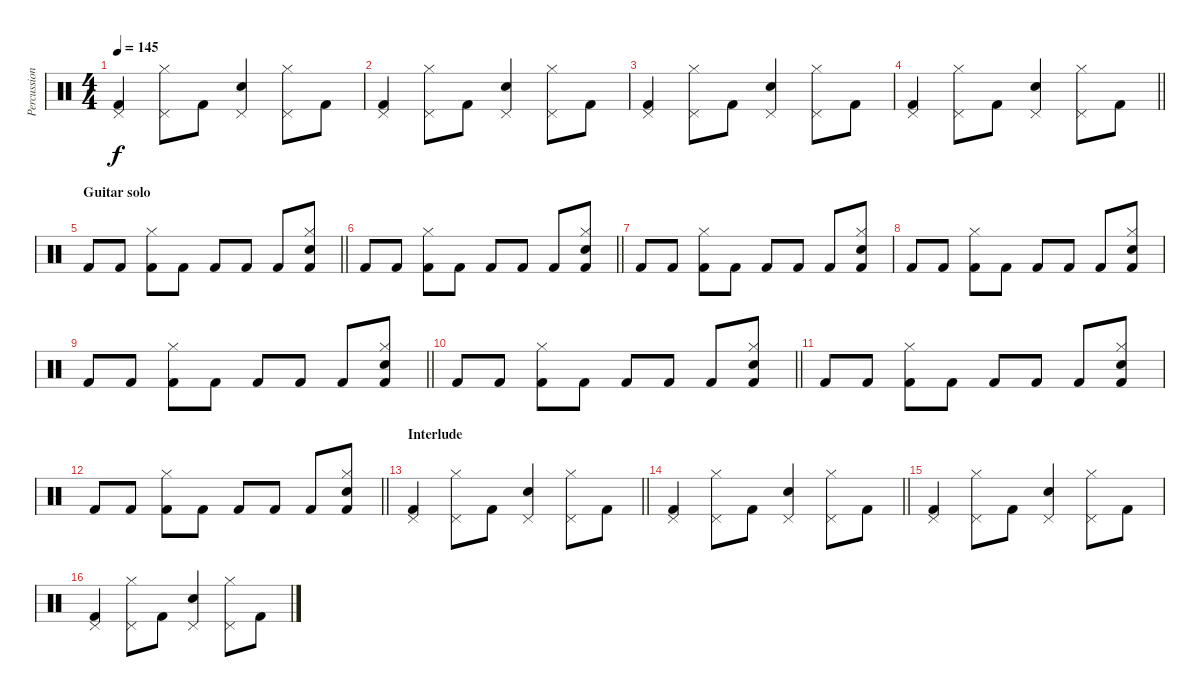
\track ("Percussion" "Percussion") {instrument percussion}
\staff {score}
\articulation defaults
\ts (4 4)
\tempo 145
\clef neutral
\ks c
("Kick (hit) 2" "Pedal Hi-Hat (hit)").4{dy f} ("Hi-Hat (closed)" "Pedal Hi-Hat (hit)").8 "Kick (hit) 2".8 ("Snare (hit) 2" "Pedal Hi-Hat (hit)").4 ("Hi-Hat (closed)" "Pedal Hi-Hat (hit)").8 "Kick (hit) 2".8 |
("Kick (hit) 2" "Pedal Hi-Hat (hit)").4 ("Hi-Hat (closed)" "Pedal Hi-Hat (hit)").8 "Kick (hit) 2".8 ("Snare (hit) 2" "Pedal Hi-Hat (hit)").4 ("Hi-Hat (closed)" "Pedal Hi-Hat (hit)").8 "Kick (hit) 2".8 |
("Kick (hit) 2" "Pedal Hi-Hat (hit)").4 ("Hi-Hat (closed)" "Pedal Hi-Hat (hit)").8 "Kick (hit) 2".8 ("Snare (hit) 2" "Pedal Hi-Hat (hit)").4 ("Hi-Hat (closed)" "Pedal Hi-Hat (hit)").8 "Kick (hit) 2".8 |
\barLineRight lightlight
("Kick (hit) 2" "Pedal Hi-Hat (hit)").4 ("Hi-Hat (closed)" "Pedal Hi-Hat (hit)").8 "Kick (hit) 2".8 ("Snare (hit) 2" "Pedal Hi-Hat (hit)").4 ("Hi-Hat (closed)" "Pedal Hi-Hat (hit)").8 "Kick (hit) 2".8 |
\section ("" "Guitar solo")
\barLineRight lightlight "Kick (hit) 2".8 "Kick (hit) 2".8
("Hi-Hat (closed)" "Kick (hit) 2").8 "Kick (hit) 2".8 "Kick (hit) 2".8 "Kick (hit) 2".8 "Kick (hit) 2".8 ("Hi-Hat (closed)" "Snare (hit) 2" "Kick (hit) 2").8 |
\section ("" "")
\barLineRight lightlight "Kick (hit) 2".8 "Kick (hit) 2".8
("Hi-Hat (closed)" "Kick (hit) 2").8 "Kick (hit) 2".8 "Kick (hit) 2".8 "Kick (hit) 2".8 "Kick (hit) 2".8 ("Hi-Hat (closed)" "Snare (hit) 2" "Kick (hit) 2").8 |
"Kick (hit) 2".8 "Kick (hit) 2".8 ("Hi-Hat (closed)" "Kick (hit) 2").8 "Kick (hit) 2".8 "Kick (hit) 2".8 "Kick (hit) 2".8 "Kick (hit) 2".8 ("Hi-Hat (closed)" "Snare (hit) 2" "Kick (hit) 2").8 |
"Kick (hit) 2".8 "Kick (hit) 2".8 ("Hi-Hat (closed)" "Kick (hit) 2").8 "Kick (hit) 2".8 "Kick (hit) 2".8 "Kick (hit) 2".8 "Kick (hit) 2".8 ("Hi-Hat (closed)" "Snare (hit) 2" "Kick (hit) 2").8 |
\barLineRight lightlight "Kick (hit) 2".8 "Kick (hit) 2".8
("Hi-Hat (closed)" "Kick (hit) 2").8 "Kick (hit) 2".8 "Kick (hit) 2".8 "Kick (hit) 2".8 "Kick (hit) 2".8 ("Hi-Hat (closed)" "Snare (hit) 2" "Kick (hit) 2").8 |
\barLineRight lightlight "Kick (hit) 2".8 "Kick (hit) 2".8
("Hi-Hat (closed)" "Kick (hit) 2").8 "Kick (hit) 2".8 "Kick (hit) 2".8 "Kick (hit) 2".8 "Kick (hit) 2".8 ("Hi-Hat (closed)" "Snare (hit) 2" "Kick (hit) 2").8 |
"Kick (hit) 2".8 "Kick (hit) 2".8 ("Hi-Hat (closed)" "Kick (hit) 2").8 "Kick (hit) 2".8 "Kick (hit) 2".8 "Kick (hit) 2".8 "Kick (hit) 2".8 ("Hi-Hat (closed)" "Snare (hit) 2" "Kick (hit) 2").8 |
\barLineRight lightlight "Kick (hit) 2".8 "Kick (hit) 2".8
("Hi-Hat (closed)" "Kick (hit) 2").8 "Kick (hit) 2".8 "Kick (hit) 2".8 "Kick (hit) 2".8 "Kick (hit) 2".8 ("Hi-Hat (closed)" "Snare (hit) 2" "Kick (hit) 2").8 |
\section ("" "Interlude")
\barLineRight lightlight
("Kick (hit) 2" "Pedal Hi-Hat (hit)").4 ("Hi-Hat (closed)" "Pedal Hi-Hat (hit)").8 "Kick (hit) 2".8 ("Snare (hit) 2" "Pedal Hi-Hat (hit)").4 ("Hi-Hat (closed)" "Pedal Hi-Hat (hit)").8 "Kick (hit) 2".8 |
\section ("" "")
\barLineRight lightlight
("Kick (hit) 2" "Pedal Hi-Hat (hit)").4 ("Hi-Hat (closed)" "Pedal Hi-Hat (hit)").8 "Kick (hit) 2".8 ("Snare (hit) 2" "Pedal Hi-Hat (hit)").4 ("Hi-Hat (closed)" "Pedal Hi-Hat (hit)").8 "Kick (hit) 2".8 |
("Kick (hit) 2" "Pedal Hi-Hat (hit)").4 ("Hi-Hat (closed)" "Pedal Hi-Hat (hit)").8 "Kick (hit) 2".8 ("Snare (hit) 2" "Pedal Hi-Hat (hit)").4 ("Hi-Hat (closed)" "Pedal Hi-Hat (hit)").8 "Kick (hit) 2".8 |
("Kick (hit) 2" "Pedal Hi-Hat (hit)").4 ("Hi-Hat (closed)" "Pedal Hi-Hat (hit)").8 "Kick (hit) 2".8 ("Snare (hit) 2" "Pedal Hi-Hat (hit)").4 ("Hi-Hat (closed)" "Pedal Hi-Hat (hit)").8 "Kick (hit) 2".8
